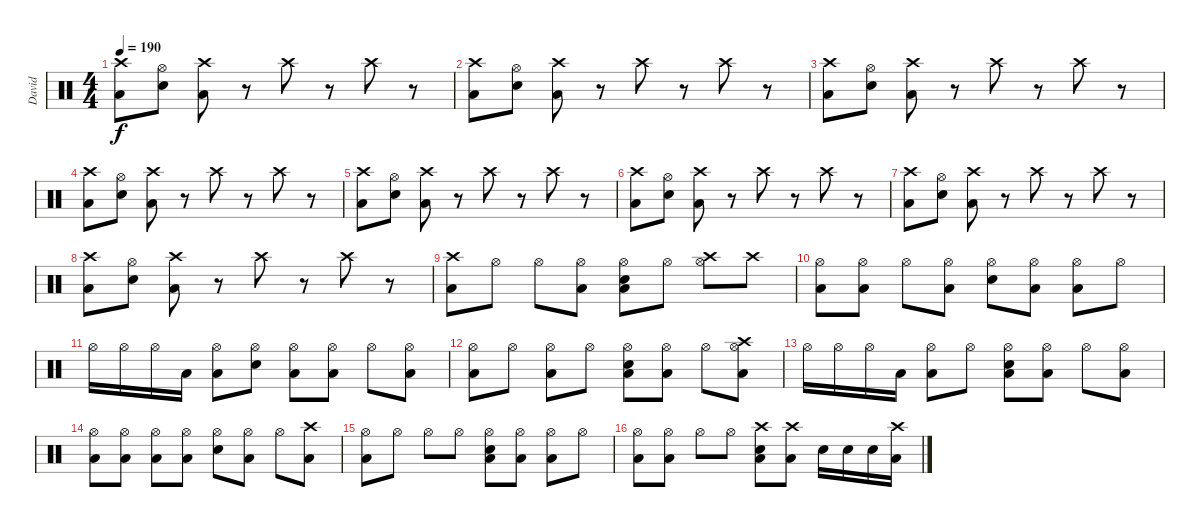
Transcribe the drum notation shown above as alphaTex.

\track ("David" "David") {instrument percussion}
\staff {score}
\articulation defaults
\ts (4 4)
\tempo 190
\clef neutral
\ks c
("Crash high (hit)" "Low Tom (hit)").8{dy f} ("Hi-Hat (open)" "Electric Snare (hit)").8 ("Crash high (hit)" "Low Tom (hit)").8 r.8 "Crash high (hit)".8 r.8 "Crash high (hit)".8 r.8 |
("Crash high (hit)" "Low Tom (hit)").8 ("Hi-Hat (open)" "Electric Snare (hit)").8 ("Crash high (hit)" "Low Tom (hit)").8 r.8 "Crash high (hit)".8 r.8 "Crash high (hit)".8 r.8 |
("Crash high (hit)" "Low Tom (hit)").8 ("Hi-Hat (open)" "Electric Snare (hit)").8 ("Crash high (hit)" "Low Tom (hit)").8 r.8 "Crash high (hit)".8 r.8 "Crash high (hit)".8 r.8 |
("Crash high (hit)" "Low Tom (hit)").8 ("Hi-Hat (open)" "Electric Snare (hit)").8 ("Crash high (hit)" "Low Tom (hit)").8 r.8 "Crash high (hit)".8 r.8 "Crash high (hit)".8 r.8 |
("Crash high (hit)" "Low Tom (hit)").8 ("Hi-Hat (open)" "Electric Snare (hit)").8 ("Crash high (hit)" "Low Tom (hit)").8 r.8 "Crash high (hit)".8 r.8 "Crash high (hit)".8 r.8 |
("Crash high (hit)" "Low Tom (hit)").8 ("Hi-Hat (open)" "Electric Snare (hit)").8 ("Crash high (hit)" "Low Tom (hit)").8 r.8 "Crash high (hit)".8 r.8 "Crash high (hit)".8 r.8 |
("Crash high (hit)" "Low Tom (hit)").8 ("Hi-Hat (open)" "Electric Snare (hit)").8 ("Crash high (hit)" "Low Tom (hit)").8 r.8 "Crash high (hit)".8 r.8 "Crash high (hit)".8 r.8 |
("Crash high (hit)" "Low Tom (hit)").8 ("Hi-Hat (open)" "Electric Snare (hit)").8 ("Crash high (hit)" "Low Tom (hit)").8 r.8 "Crash high (hit)".8 r.8 "Crash high (hit)".8 r.8 |
("Crash high (hit)" "Low Tom (hit)").8 "Hi-Hat (open)".8 "Hi-Hat (open)".8 ("Hi-Hat (open)" "Low Tom (hit)").8 ("Hi-Hat (open)" "Electric Snare (hit)" "Low Tom (hit)").8 "Hi-Hat (open)".8 ("Crash high (hit)" "Hi-Hat (open)").8 "Crash high (hit)".8 |
("Hi-Hat (open)" "Low Tom (hit)").8 ("Hi-Hat (open)" "Low Tom (hit)").8 "Hi-Hat (open)".8 ("Hi-Hat (open)" "Low Tom (hit)").8 ("Hi-Hat (open)" "Electric Snare (hit)").8 ("Hi-Hat (open)" "Low Tom (hit)").8 ("Hi-Hat (open)" "Low Tom (hit)").8 "Hi-Hat (open)".8 |
"Hi-Hat (open)".16 "Hi-Hat (open)".16 "Hi-Hat (open)".16 "Low Tom (hit)".16 ("Hi-Hat (open)" "Low Tom (hit)").8 ("Hi-Hat (open)" "Electric Snare (hit)").8 ("Hi-Hat (open)" "Low Tom (hit)").8 ("Hi-Hat (open)" "Low Tom (hit)").8 "Hi-Hat (open)".8 ("Hi-Hat (open)" "Low Tom (hit)").8 |
("Hi-Hat (open)" "Low Tom (hit)").8 "Hi-Hat (open)".8 ("Hi-Hat (open)" "Low Tom (hit)").8 "Hi-Hat (open)".8 ("Hi-Hat (open)" "Electric Snare (hit)" "Low Tom (hit)").8 ("Hi-Hat (open)" "Low Tom (hit)").8 "Hi-Hat (open)".8 ("Crash high (hit)" "Hi-Hat (open)" "Low Tom (hit)").8 |
"Hi-Hat (open)".16 "Hi-Hat (open)".16 "Hi-Hat (open)".16 "Low Tom (hit)".16 ("Hi-Hat (open)" "Low Tom (hit)").8 "Hi-Hat (open)".8 ("Hi-Hat (open)" "Electric Snare (hit)" "Low Tom (hit)").8 ("Hi-Hat (open)" "Low Tom (hit)").8 "Hi-Hat (open)".8 ("Hi-Hat (open)" "Low Tom (hit)").8 |
("Hi-Hat (open)" "Low Tom (hit)").8 ("Hi-Hat (open)" "Low Tom (hit)").8 ("Hi-Hat (open)" "Low Tom (hit)").8 ("Hi-Hat (open)" "Low Tom (hit)").8 ("Hi-Hat (open)" "Electric Snare (hit)").8 ("Hi-Hat (open)" "Low Tom (hit)").8 "Hi-Hat (open)".8 ("Crash high (hit)" "Low Tom (hit)").8 |
("Hi-Hat (open)" "Low Tom (hit)").8 "Hi-Hat (open)".8 "Hi-Hat (open)".8 "Hi-Hat (open)".8 ("Hi-Hat (open)" "Electric Snare (hit)" "Low Tom (hit)").8 ("Hi-Hat (open)" "Low Tom (hit)").8 ("Hi-Hat (open)" "Low Tom (hit)").8 "Hi-Hat (open)".8 |
("Hi-Hat (open)" "Low Tom (hit)").8 ("Hi-Hat (open)" "Low Tom (hit)").8 "Hi-Hat (open)".8 "Hi-Hat (open)".8 ("Crash high (hit)" "Electric Snare (hit)" "Low Tom (hit)").8 ("Crash high (hit)" "Low Tom (hit)").8 "Electric Snare (hit)".16 "Electric Snare (hit)".16 "Electric Snare (hit)".16 ("Crash high (hit)" "Low Tom (hit)").16
